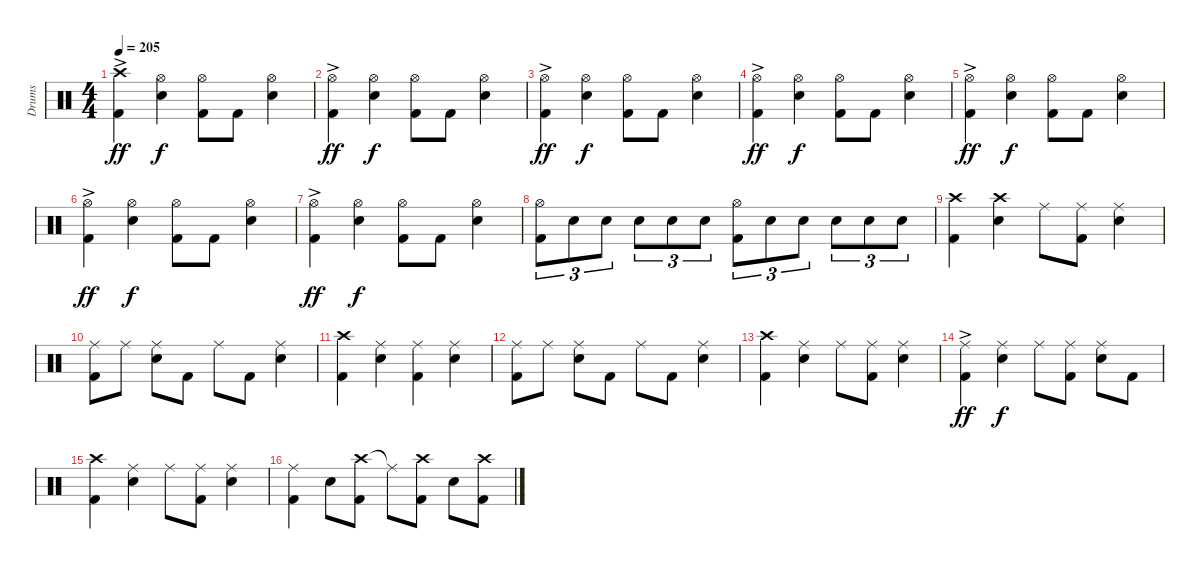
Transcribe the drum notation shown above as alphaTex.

\track ("Drums" "Drums") {instrument percussion}
\staff {score}
\articulation defaults
\ts (4 4)
\tempo 205
\clef neutral
\ks c
("Crash high (hit)"{ac} "Kick (hit) 2").4{dy ff} ("Hi-Hat (open)" "Electric Snare (hit)").4{dy f} ("Hi-Hat (open)" "Kick (hit) 2").8 "Kick (hit) 2".8 ("Hi-Hat (open)" "Electric Snare (hit)").4 |
("Hi-Hat (open)"{ac} "Kick (hit) 2").4{dy ff} ("Hi-Hat (open)" "Electric Snare (hit)").4{dy f} ("Hi-Hat (open)" "Kick (hit) 2").8 "Kick (hit) 2".8 ("Hi-Hat (open)" "Electric Snare (hit)").4 |
("Hi-Hat (open)"{ac} "Kick (hit) 2").4{dy ff} ("Hi-Hat (open)" "Electric Snare (hit)").4{dy f} ("Hi-Hat (open)" "Kick (hit) 2").8 "Kick (hit) 2".8 ("Hi-Hat (open)" "Electric Snare (hit)").4 |
("Hi-Hat (open)"{ac} "Kick (hit) 2").4{dy ff} ("Hi-Hat (open)" "Electric Snare (hit)").4{dy f} ("Hi-Hat (open)" "Kick (hit) 2").8 "Kick (hit) 2".8 ("Hi-Hat (open)" "Electric Snare (hit)").4 |
("Hi-Hat (open)"{ac} "Kick (hit) 2").4{dy ff} ("Hi-Hat (open)" "Electric Snare (hit)").4{dy f} ("Hi-Hat (open)" "Kick (hit) 2").8 "Kick (hit) 2".8 ("Hi-Hat (open)" "Electric Snare (hit)").4 |
("Hi-Hat (open)"{ac} "Kick (hit) 2").4{dy ff} ("Hi-Hat (open)" "Electric Snare (hit)").4{dy f} ("Hi-Hat (open)" "Kick (hit) 2").8 "Kick (hit) 2".8 ("Hi-Hat (open)" "Electric Snare (hit)").4 |
("Hi-Hat (open)"{ac} "Kick (hit) 2").4{dy ff} ("Hi-Hat (open)" "Electric Snare (hit)").4{dy f} ("Hi-Hat (open)" "Kick (hit) 2").8 "Kick (hit) 2".8 ("Hi-Hat (open)" "Electric Snare (hit)").4 |
("Hi-Hat (open)" "Kick (hit) 2").8{tu (3 2)} "Electric Snare (hit)".8{tu (3 2)} "Electric Snare (hit)".8{tu (3 2)} "Electric Snare (hit)".8{tu (3 2)} "Electric Snare (hit)".8{tu (3 2)} "Electric Snare (hit)".8{tu (3 2)} ("Hi-Hat (open)" "Kick (hit) 2").8{tu (3 2)} "Electric Snare (hit)".8{tu (3 2)} "Electric Snare (hit)".8{tu (3 2)} "Electric Snare (hit)".8{tu (3 2)} "Electric Snare (hit)".8{tu (3 2)} "Electric Snare (hit)".8{tu (3 2)} |
("Crash high (hit)" "Kick (hit) 2").4 ("Crash high (hit)" "Electric Snare (hit)").4 "Ride (middle)".8 ("Ride (middle)" "Kick (hit) 2").8 ("Ride (middle)" "Electric Snare (hit)").4 |
("Ride (middle)" "Kick (hit) 2").8 "Ride (middle)".8 ("Ride (middle)" "Electric Snare (hit)").8 "Kick (hit) 2".8 "Ride (middle)".8 "Kick (hit) 2".8 ("Ride (middle)" "Electric Snare (hit)").4 |
("Crash high (hit)" "Kick (hit) 2").4 ("Ride (middle)" "Electric Snare (hit)").4 ("Ride (middle)" "Kick (hit) 2").4 ("Ride (middle)" "Electric Snare (hit)").4 |
("Ride (middle)" "Kick (hit) 2").8 "Ride (middle)".8 ("Ride (middle)" "Electric Snare (hit)").8 "Kick (hit) 2".8 "Ride (middle)".8 "Kick (hit) 2".8 ("Ride (middle)" "Electric Snare (hit)").4 |
("Crash high (hit)" "Kick (hit) 2").4 ("Ride (middle)" "Electric Snare (hit)").4 "Ride (middle)".8 ("Ride (middle)" "Kick (hit) 2").8 ("Ride (middle)" "Electric Snare (hit)").4 |
("Ride (middle)"{ac} "Kick (hit) 2").4{dy ff} ("Ride (middle)" "Electric Snare (hit)").4{dy f} "Ride (middle)".8 ("Ride (middle)" "Kick (hit) 2").8 ("Ride (middle)" "Electric Snare (hit)").8 "Kick (hit) 2".8 |
("Crash high (hit)" "Kick (hit) 2").4 ("Ride (middle)" "Electric Snare (hit)").4 "Ride (middle)".8 ("Ride (middle)" "Kick (hit) 2").8 ("Ride (middle)" "Electric Snare (hit)").4 |
("Ride (middle)" "Kick (hit) 2").4 "Electric Snare (hit)".8 ("Crash high (hit)" "Kick (hit) 2").8 "Ride (middle)"{t}.8 ("Crash high (hit)" "Kick (hit) 2").8 "Electric Snare (hit)".8 ("Crash high (hit)" "Kick (hit) 2").8
